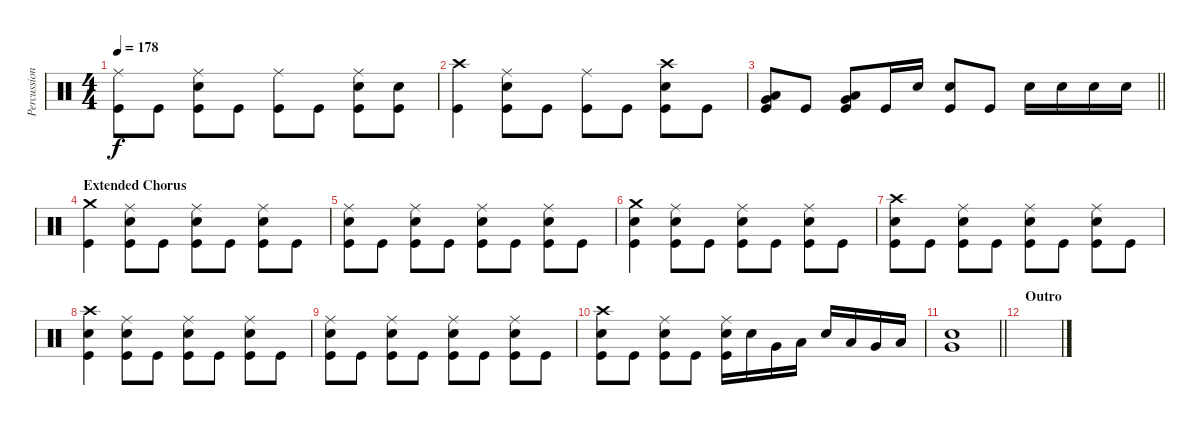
\track ("Percussion" "Percussion") {instrument percussion}
\staff {score}
\articulation defaults
\ts (4 4)
\tempo 178
\clef neutral
\ks c
("Ride (middle)" "Kick (hit)").8{dy f} "Kick (hit)".8 ("Ride (middle)" "Electric Snare (hit)" "Kick (hit)").8 "Kick (hit)".8 ("Ride (middle)" "Kick (hit)").8 "Kick (hit)".8 ("Ride (middle)" "Electric Snare (hit)" "Kick (hit)").8 ("Electric Snare (hit)" "Kick (hit)").8 |
("Crash high (hit)" "Kick (hit)").4 ("Ride (middle)" "Electric Snare (hit)" "Kick (hit)").8 "Kick (hit)".8 ("Ride (middle)" "Kick (hit)").8 "Kick (hit)".8 ("Crash high (hit)" "Electric Snare (hit)" "Kick (hit)").8 "Kick (hit)".8 |
\barLineRight lightlight
("Low Tom (hit)" "Very Low Tom (hit)" "Kick (hit)").8 "Kick (hit)".8 ("Very Low Tom (hit)" "Low Floor Tom (hit)" "Kick (hit)").8 "Kick (hit)".16 "Electric Snare (hit)".16 ("Electric Snare (hit)" "Kick (hit)").8 "Kick (hit)".8 "Electric Snare (hit)".16 "Electric Snare (hit)".16 "Electric Snare (hit)".16 "Electric Snare (hit)".16 |
\section ("" "Extended Chorus")
("Crash medium (hit)" "Kick (hit)").4 ("Ride (middle)" "Electric Snare (hit)" "Kick (hit)").8 "Kick (hit)".8 ("Ride (middle)" "Electric Snare (hit)" "Kick (hit)").8 "Kick (hit)".8 ("Ride (middle)" "Electric Snare (hit)" "Kick (hit)").8 "Kick (hit)".8 |
("Ride (middle)" "Electric Snare (hit)" "Kick (hit)").8 "Kick (hit)".8 ("Ride (middle)" "Electric Snare (hit)" "Kick (hit)").8 "Kick (hit)".8 ("Ride (middle)" "Electric Snare (hit)" "Kick (hit)").8 "Kick (hit)".8 ("Ride (middle)" "Electric Snare (hit)" "Kick (hit)").8 "Kick (hit)".8 |
("Crash medium (hit)" "Electric Snare (hit)" "Kick (hit)").4 ("Ride (middle)" "Electric Snare (hit)" "Kick (hit)").8 "Kick (hit)".8 ("Ride (middle)" "Electric Snare (hit)" "Kick (hit)").8 "Kick (hit)".8 ("Ride (middle)" "Electric Snare (hit)" "Kick (hit)").8 "Kick (hit)".8 |
("Crash high (hit)" "Electric Snare (hit)" "Kick (hit)").8 "Kick (hit)".8 ("Ride (middle)" "Electric Snare (hit)" "Kick (hit)").8 "Kick (hit)".8 ("Ride (middle)" "Electric Snare (hit)" "Kick (hit)").8 "Kick (hit)".8 ("Ride (middle)" "Electric Snare (hit)" "Kick (hit)").8 "Kick (hit)".8 |
("Crash high (hit)" "Electric Snare (hit)" "Kick (hit)").4 ("Ride (middle)" "Electric Snare (hit)" "Kick (hit)").8 "Kick (hit)".8 ("Ride (middle)" "Electric Snare (hit)" "Kick (hit)").8 "Kick (hit)".8 ("Ride (middle)" "Electric Snare (hit)" "Kick (hit)").8 "Kick (hit)".8 |
("Ride (middle)" "Electric Snare (hit)" "Kick (hit)").8 "Kick (hit)".8 ("Ride (middle)" "Electric Snare (hit)" "Kick (hit)").8 "Kick (hit)".8 ("Ride (middle)" "Electric Snare (hit)" "Kick (hit)").8 "Kick (hit)".8 ("Ride (middle)" "Electric Snare (hit)" "Kick (hit)").8 "Kick (hit)".8 |
("Crash high (hit)" "Electric Snare (hit)" "Kick (hit)").8 "Kick (hit)".8 ("Ride (middle)" "Electric Snare (hit)" "Kick (hit)").8 "Kick (hit)".8 ("Ride (middle)" "Electric Snare (hit)" "Kick (hit)").16 "Electric Snare (hit)".16 "Very Low Tom (hit)".16 "Low Floor Tom (hit)".16 "Electric Snare (hit)".16 "Low Tom (hit)".16 "Very Low Tom (hit)".16 "Low Floor Tom (hit)".16 |
\barLineRight lightlight
("Electric Snare (hit)" "Very Low Tom (hit)").1 |
\section ("" "Outro")
